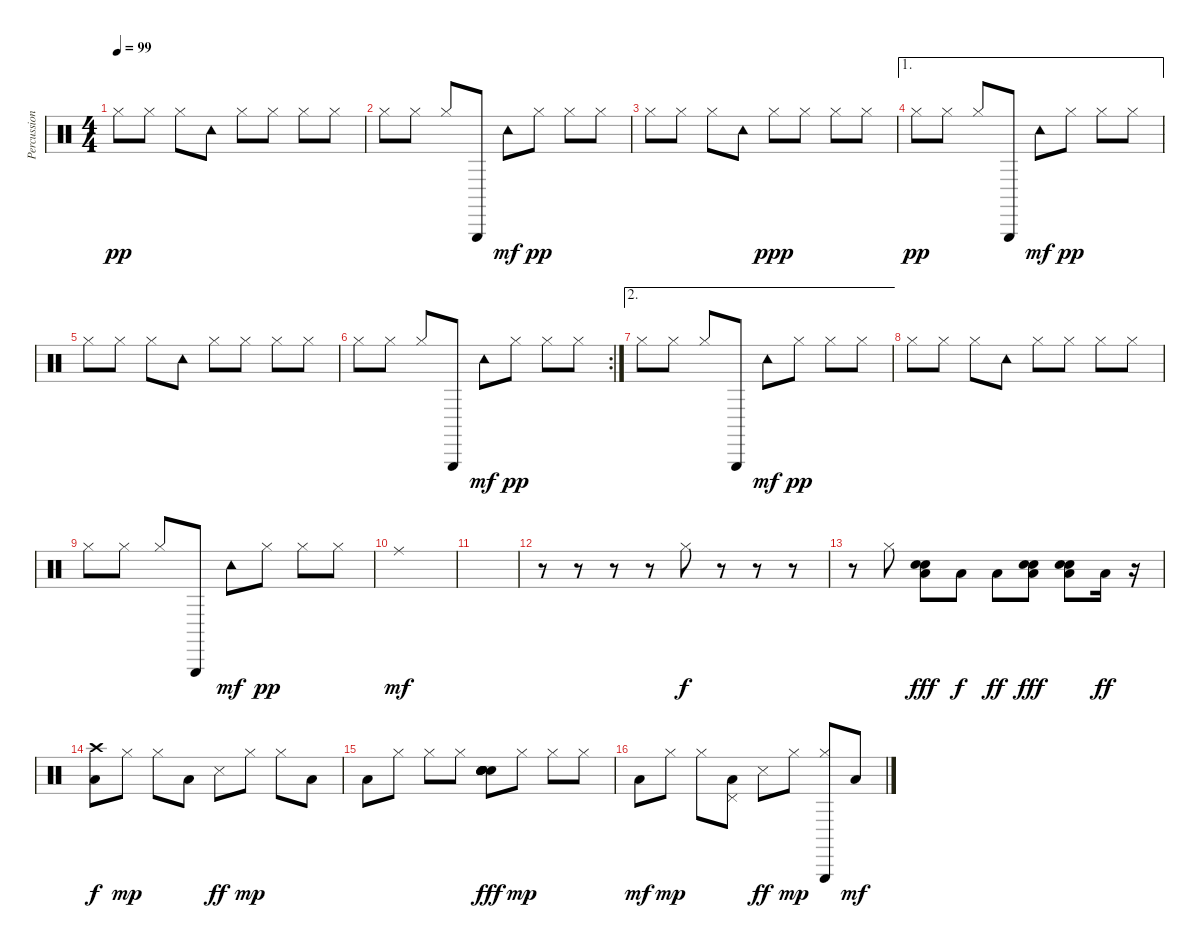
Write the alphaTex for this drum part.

\track ("Percussion" "Percussion") {instrument percussion}
\staff {score}
\articulation defaults
\ts (4 4)
\tempo 99
\clef neutral
\ks c "Hi-Hat (closed)".8{dy pp} "Hi-Hat (closed)".8 "Hi-Hat (closed)".8 "Tambourine (hit)".8 "Hi-Hat (closed)".8 "Hi-Hat (closed)".8 "Hi-Hat (closed)".8 "Hi-Hat (closed)".8
|
"Hi-Hat (closed)".8 "Hi-Hat (closed)".8 "Hi-Hat (closed)".8 "Triangle (hit)".8 "Tambourine (hit)".8{dy mf} "Hi-Hat (closed)".8{dy pp} "Hi-Hat (closed)".8 "Hi-Hat (closed)".8 |
"Hi-Hat (closed)".8 "Hi-Hat (closed)".8 "Hi-Hat (closed)".8 "Tambourine (hit)".8 "Hi-Hat (closed)".8{dy ppp} "Hi-Hat (closed)".8 "Hi-Hat (closed)".8 "Hi-Hat (closed)".8 |
\ae 1 "Hi-Hat (closed)".8{dy pp} "Hi-Hat (closed)".8 "Hi-Hat (closed)".8 "Triangle (hit)".8 "Tambourine (hit)".8{dy mf} "Hi-Hat (closed)".8{dy pp} "Hi-Hat (closed)".8 "Hi-Hat (closed)".8
|
"Hi-Hat (closed)".8 "Hi-Hat (closed)".8 "Hi-Hat (closed)".8 "Tambourine (hit)".8 "Hi-Hat (closed)".8 "Hi-Hat (closed)".8 "Hi-Hat (closed)".8 "Hi-Hat (closed)".8 |
\rc 2 "Hi-Hat (closed)".8 "Hi-Hat (closed)".8 "Hi-Hat (closed)".8 "Triangle (hit)".8 "Tambourine (hit)".8{dy mf} "Hi-Hat (closed)".8{dy pp} "Hi-Hat (closed)".8 "Hi-Hat (closed)".8
|
\ae 2 "Hi-Hat (closed)".8 "Hi-Hat (closed)".8 "Hi-Hat (closed)".8 "Triangle (hit)".8 "Tambourine (hit)".8{dy mf} "Hi-Hat (closed)".8{dy pp} "Hi-Hat (closed)".8 "Hi-Hat (closed)".8
|
"Hi-Hat (closed)".8 "Hi-Hat (closed)".8 "Hi-Hat (closed)".8 "Tambourine (hit)".8 "Hi-Hat (closed)".8 "Hi-Hat (closed)".8 "Hi-Hat (closed)".8 "Hi-Hat (closed)".8 |
"Hi-Hat (closed)".8 "Hi-Hat (closed)".8 "Hi-Hat (closed)".8 "Triangle (hit)".8 "Tambourine (hit)".8{dy mf} "Hi-Hat (closed)".8{dy pp} "Hi-Hat (closed)".8 "Hi-Hat (closed)".8 |
"Ride (middle)".1{dy mf} |
|
r.8 r.8 r.8 r.8 "Hi-Hat (closed)".8{dy f} r.8 r.8 r.8 |
r.8 "Hi-Hat (closed)".8 ("Electric Snare (hit)" "Snare (hit) 2" "Low Floor Tom (hit)").8{dy fff} "Low Floor Tom (hit)".8{dy f} "Low Floor Tom (hit)".8{dy ff} ("Electric Snare (hit)" "Snare (hit) 2" "Low Floor Tom (hit)").8{dy fff} ("Electric Snare (hit)" "Snare (hit) 2" "Low Floor Tom (hit)").8 "Low Floor Tom (hit)".16{dy ff} r.16 |
("Crash high (hit)" "Low Floor Tom (hit)").8{dy f} "Hi-Hat (closed)".8{dy mp} "Hi-Hat (closed)".8 "Low Tom (hit)".8 "Snare (side stick) 3".8{dy ff} "Hi-Hat (closed)".8{dy mp} "Hi-Hat (closed)".8 "Low Tom (hit)".8 |
"Low Tom (hit)".8 "Hi-Hat (closed)".8 "Hi-Hat (closed)".8 "Hi-Hat (closed)".8 ("Snare (hit) 2" "Snare (hit) 2" "Snare (hit) 2" "Snare (hit) 2" "Electric Snare (hit)" "Snare (hit) 2").8{dy fff} "Hi-Hat (closed)".8{dy mp} "Hi-Hat (closed)".8 "Hi-Hat (closed)".8 |
"Low Tom (hit)".8{dy mf} "Hi-Hat (closed)".8{dy mp} "Hi-Hat (closed)".8 ("Low Tom (hit)" "Pedal Hi-Hat (hit)").8 "Snare (side stick) 3".8{dy ff} "Hi-Hat (closed)".8{dy mp} ("Hi-Hat (closed)" "Triangle (hit)").8 "Low Tom (hit)".8{dy mf}
